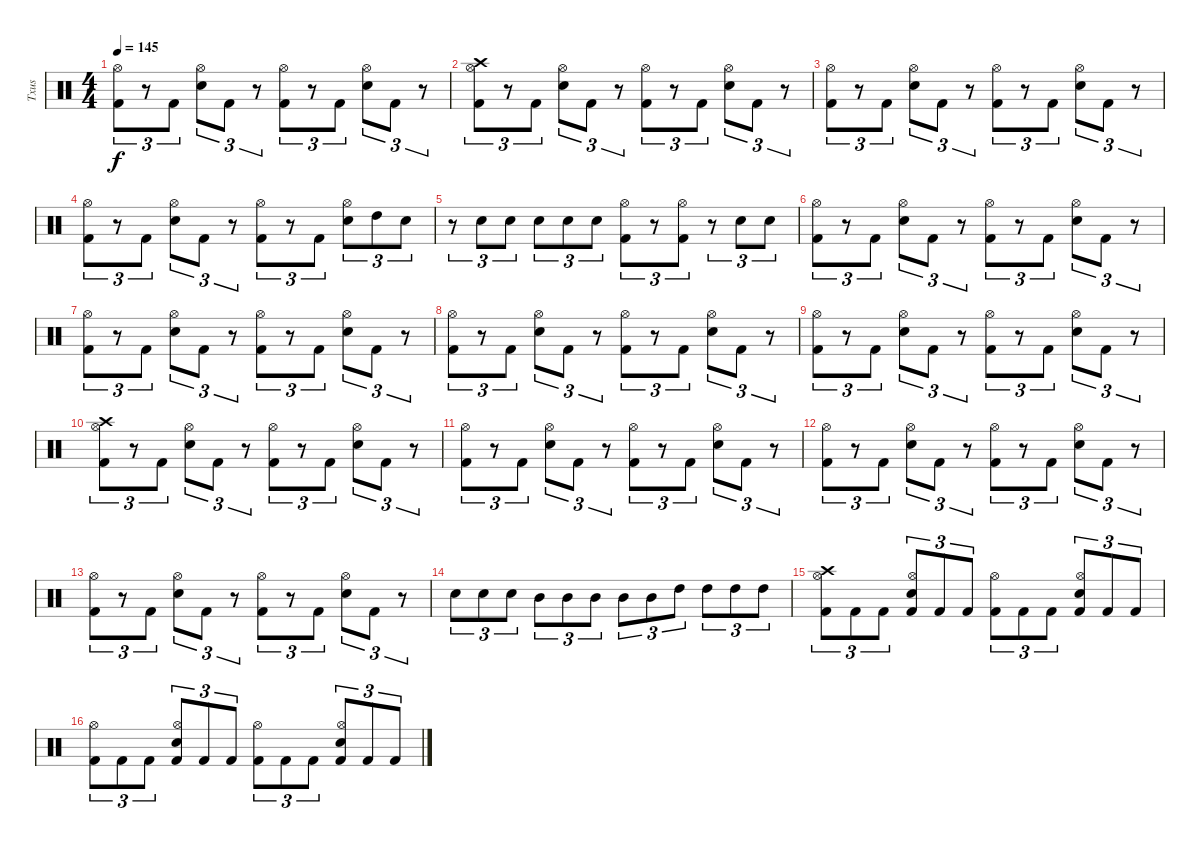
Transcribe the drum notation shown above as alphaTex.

\track ("Txus" "Txus") {instrument percussion}
\staff {score}
\articulation defaults
\ts (4 4)
\tempo 145
\clef neutral
\ks c
("Kick (hit) 2" "Hi-Hat (open)").8{tu (3 2) dy f} r.8{tu (3 2)} "Kick (hit) 2".8{tu (3 2)} ("Hi-Hat (open)" "Electric Snare (hit)").8{tu (3 2)} "Kick (hit) 2".8{tu (3 2)} r.8{tu (3 2)} ("Kick (hit) 2" "Hi-Hat (open)").8{tu (3 2)} r.8{tu (3 2)} "Kick (hit) 2".8{tu (3 2)} ("Hi-Hat (open)" "Electric Snare (hit)").8{tu (3 2)} "Kick (hit) 2".8{tu (3 2)} r.8{tu (3 2)} |
("Kick (hit) 2" "Hi-Hat (open)" "Crash high (hit)").8{tu (3 2)} r.8{tu (3 2)} "Kick (hit) 2".8{tu (3 2)} ("Hi-Hat (open)" "Electric Snare (hit)").8{tu (3 2)} "Kick (hit) 2".8{tu (3 2)} r.8{tu (3 2)} ("Kick (hit) 2" "Hi-Hat (open)").8{tu (3 2)} r.8{tu (3 2)} "Kick (hit) 2".8{tu (3 2)} ("Hi-Hat (open)" "Electric Snare (hit)").8{tu (3 2)} "Kick (hit) 2".8{tu (3 2)} r.8{tu (3 2)} |
("Kick (hit) 2" "Hi-Hat (open)").8{tu (3 2)} r.8{tu (3 2)} "Kick (hit) 2".8{tu (3 2)} ("Hi-Hat (open)" "Electric Snare (hit)").8{tu (3 2)} "Kick (hit) 2".8{tu (3 2)} r.8{tu (3 2)} ("Kick (hit) 2" "Hi-Hat (open)").8{tu (3 2)} r.8{tu (3 2)} "Kick (hit) 2".8{tu (3 2)} ("Hi-Hat (open)" "Electric Snare (hit)").8{tu (3 2)} "Kick (hit) 2".8{tu (3 2)} r.8{tu (3 2)} |
("Kick (hit) 2" "Hi-Hat (open)").8{tu (3 2)} r.8{tu (3 2)} "Kick (hit) 2".8{tu (3 2)} ("Hi-Hat (open)" "Electric Snare (hit)").8{tu (3 2)} "Kick (hit) 2".8{tu (3 2)} r.8{tu (3 2)} ("Kick (hit) 2" "Hi-Hat (open)").8{tu (3 2)} r.8{tu (3 2)} "Kick (hit) 2".8{tu (3 2)} ("Hi-Hat (open)" "Electric Snare (hit)").8{tu (3 2)} "High Tom (hit)".8{tu (3 2)} "Electric Snare (hit)".8{tu (3 2)} |
r.8{tu (3 2)} "Electric Snare (hit)".8{tu (3 2)} "Electric Snare (hit)".8{tu (3 2)} "Electric Snare (hit)".8{tu (3 2)} "Electric Snare (hit)".8{tu (3 2)} "Electric Snare (hit)".8{tu (3 2)} ("Hi-Hat (open)" "Kick (hit) 2").8{tu (3 2)} r.8{tu (3 2)} ("Hi-Hat (open)" "Kick (hit) 2").8{tu (3 2)} r.8{tu (3 2)} "Electric Snare (hit)".8{tu (3 2)} "Electric Snare (hit)".8{tu (3 2)} |
("Kick (hit) 2" "Hi-Hat (open)").8{tu (3 2)} r.8{tu (3 2)} "Kick (hit) 2".8{tu (3 2)} ("Hi-Hat (open)" "Electric Snare (hit)").8{tu (3 2)} "Kick (hit) 2".8{tu (3 2)} r.8{tu (3 2)} ("Kick (hit) 2" "Hi-Hat (open)").8{tu (3 2)} r.8{tu (3 2)} "Kick (hit) 2".8{tu (3 2)} ("Hi-Hat (open)" "Electric Snare (hit)").8{tu (3 2)} "Kick (hit) 2".8{tu (3 2)} r.8{tu (3 2)} |
("Kick (hit) 2" "Hi-Hat (open)").8{tu (3 2)} r.8{tu (3 2)} "Kick (hit) 2".8{tu (3 2)} ("Hi-Hat (open)" "Electric Snare (hit)").8{tu (3 2)} "Kick (hit) 2".8{tu (3 2)} r.8{tu (3 2)} ("Kick (hit) 2" "Hi-Hat (open)").8{tu (3 2)} r.8{tu (3 2)} "Kick (hit) 2".8{tu (3 2)} ("Hi-Hat (open)" "Electric Snare (hit)").8{tu (3 2)} "Kick (hit) 2".8{tu (3 2)} r.8{tu (3 2)} |
("Kick (hit) 2" "Hi-Hat (open)").8{tu (3 2)} r.8{tu (3 2)} "Kick (hit) 2".8{tu (3 2)} ("Hi-Hat (open)" "Electric Snare (hit)").8{tu (3 2)} "Kick (hit) 2".8{tu (3 2)} r.8{tu (3 2)} ("Kick (hit) 2" "Hi-Hat (open)").8{tu (3 2)} r.8{tu (3 2)} "Kick (hit) 2".8{tu (3 2)} ("Hi-Hat (open)" "Electric Snare (hit)").8{tu (3 2)} "Kick (hit) 2".8{tu (3 2)} r.8{tu (3 2)} |
("Kick (hit) 2" "Hi-Hat (open)").8{tu (3 2)} r.8{tu (3 2)} "Kick (hit) 2".8{tu (3 2)} ("Hi-Hat (open)" "Electric Snare (hit)").8{tu (3 2)} "Kick (hit) 2".8{tu (3 2)} r.8{tu (3 2)} ("Kick (hit) 2" "Hi-Hat (open)").8{tu (3 2)} r.8{tu (3 2)} "Kick (hit) 2".8{tu (3 2)} ("Hi-Hat (open)" "Electric Snare (hit)").8{tu (3 2)} "Kick (hit) 2".8{tu (3 2)} r.8{tu (3 2)} |
("Kick (hit) 2" "Hi-Hat (open)" "Crash high (hit)").8{tu (3 2)} r.8{tu (3 2)} "Kick (hit) 2".8{tu (3 2)} ("Hi-Hat (open)" "Electric Snare (hit)").8{tu (3 2)} "Kick (hit) 2".8{tu (3 2)} r.8{tu (3 2)} ("Kick (hit) 2" "Hi-Hat (open)").8{tu (3 2)} r.8{tu (3 2)} "Kick (hit) 2".8{tu (3 2)} ("Hi-Hat (open)" "Electric Snare (hit)").8{tu (3 2)} "Kick (hit) 2".8{tu (3 2)} r.8{tu (3 2)} |
("Kick (hit) 2" "Hi-Hat (open)").8{tu (3 2)} r.8{tu (3 2)} "Kick (hit) 2".8{tu (3 2)} ("Hi-Hat (open)" "Electric Snare (hit)").8{tu (3 2)} "Kick (hit) 2".8{tu (3 2)} r.8{tu (3 2)} ("Kick (hit) 2" "Hi-Hat (open)").8{tu (3 2)} r.8{tu (3 2)} "Kick (hit) 2".8{tu (3 2)} ("Hi-Hat (open)" "Electric Snare (hit)").8{tu (3 2)} "Kick (hit) 2".8{tu (3 2)} r.8{tu (3 2)} |
("Kick (hit) 2" "Hi-Hat (open)").8{tu (3 2)} r.8{tu (3 2)} "Kick (hit) 2".8{tu (3 2)} ("Hi-Hat (open)" "Electric Snare (hit)").8{tu (3 2)} "Kick (hit) 2".8{tu (3 2)} r.8{tu (3 2)} ("Kick (hit) 2" "Hi-Hat (open)").8{tu (3 2)} r.8{tu (3 2)} "Kick (hit) 2".8{tu (3 2)} ("Hi-Hat (open)" "Electric Snare (hit)").8{tu (3 2)} "Kick (hit) 2".8{tu (3 2)} r.8{tu (3 2)} |
("Kick (hit) 2" "Hi-Hat (open)").8{tu (3 2)} r.8{tu (3 2)} "Kick (hit) 2".8{tu (3 2)} ("Hi-Hat (open)" "Electric Snare (hit)").8{tu (3 2)} "Kick (hit) 2".8{tu (3 2)} r.8{tu (3 2)} ("Kick (hit) 2" "Hi-Hat (open)").8{tu (3 2)} r.8{tu (3 2)} "Kick (hit) 2".8{tu (3 2)} ("Hi-Hat (open)" "Electric Snare (hit)").8{tu (3 2)} "Kick (hit) 2".8{tu (3 2)} r.8{tu (3 2)} |
"Electric Snare (hit)".8{tu (3 2)} "Electric Snare (hit)".8{tu (3 2)} "Electric Snare (hit)".8{tu (3 2)} "Mid Tom (hit)".8{tu (3 2)} "Mid Tom (hit)".8{tu (3 2)} "Mid Tom (hit)".8{tu (3 2)} "Mid Tom (hit)".8{tu (3 2)} "Mid Tom (hit)".8{tu (3 2)} "High Tom (hit)".8{tu (3 2)} "High Tom (hit)".8{tu (3 2)} "High Tom (hit)".8{tu (3 2)} "High Tom (hit)".8{tu (3 2)} |
("Kick (hit) 2" "Hi-Hat (open)" "Crash high (hit)").8{tu (3 2)} "Kick (hit) 2".8{tu (3 2)} "Kick (hit) 2".8{tu (3 2)} ("Kick (hit) 2" "Hi-Hat (open)" "Electric Snare (hit)").8{tu (3 2)} "Kick (hit) 2".8{tu (3 2)} "Kick (hit) 2".8{tu (3 2)} ("Kick (hit) 2" "Hi-Hat (open)").8{tu (3 2)} "Kick (hit) 2".8{tu (3 2)} "Kick (hit) 2".8{tu (3 2)} ("Kick (hit) 2" "Hi-Hat (open)" "Electric Snare (hit)").8{tu (3 2)} "Kick (hit) 2".8{tu (3 2)} "Kick (hit) 2".8{tu (3 2)} |
("Kick (hit) 2" "Hi-Hat (open)").8{tu (3 2)} "Kick (hit) 2".8{tu (3 2)} "Kick (hit) 2".8{tu (3 2)} ("Kick (hit) 2" "Hi-Hat (open)" "Electric Snare (hit)").8{tu (3 2)} "Kick (hit) 2".8{tu (3 2)} "Kick (hit) 2".8{tu (3 2)} ("Kick (hit) 2" "Hi-Hat (open)").8{tu (3 2)} "Kick (hit) 2".8{tu (3 2)} "Kick (hit) 2".8{tu (3 2)} ("Kick (hit) 2" "Hi-Hat (open)" "Electric Snare (hit)").8{tu (3 2)} "Kick (hit) 2".8{tu (3 2)} "Kick (hit) 2".8{tu (3 2)}
